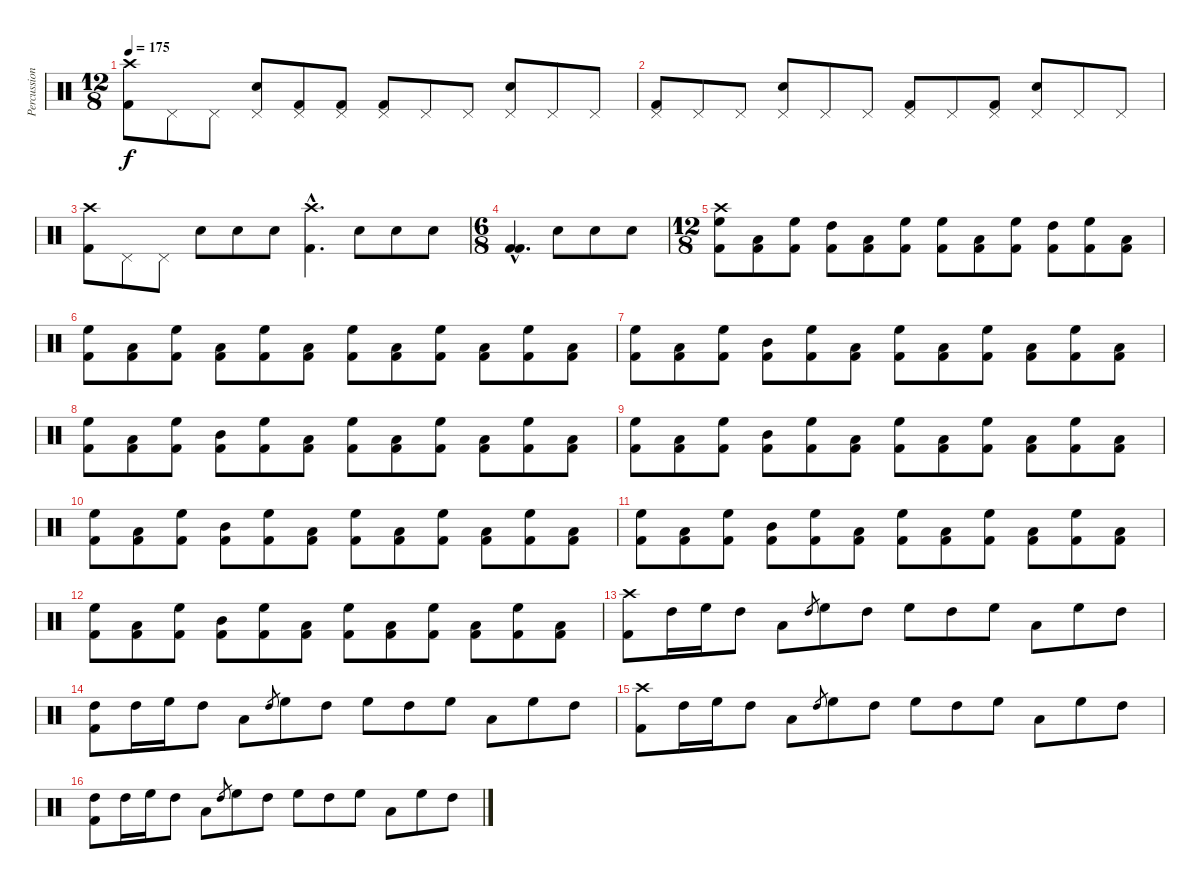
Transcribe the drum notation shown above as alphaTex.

\track ("Percussion" "Percussion") {instrument percussion}
\staff {score}
\articulation defaults
\ts (12 8)
\tempo 175
\clef neutral
\ks c
("Kick (hit) 2" "Crash high (hit)").8{dy f} "Pedal Hi-Hat (hit)".8 "Pedal Hi-Hat (hit)".8 ("Snare (hit) 2" "Pedal Hi-Hat (hit)").8 ("Kick (hit) 2" "Pedal Hi-Hat (hit)").8 ("Kick (hit) 2" "Pedal Hi-Hat (hit)").8 ("Kick (hit) 2" "Pedal Hi-Hat (hit)").8 "Pedal Hi-Hat (hit)".8 "Pedal Hi-Hat (hit)".8 ("Snare (hit) 2" "Pedal Hi-Hat (hit)").8 "Pedal Hi-Hat (hit)".8 "Pedal Hi-Hat (hit)".8 |
("Kick (hit) 2" "Pedal Hi-Hat (hit)").8 "Pedal Hi-Hat (hit)".8 "Pedal Hi-Hat (hit)".8 ("Snare (hit) 2" "Pedal Hi-Hat (hit)").8 "Pedal Hi-Hat (hit)".8 "Pedal Hi-Hat (hit)".8 ("Kick (hit) 2" "Pedal Hi-Hat (hit)").8 "Pedal Hi-Hat (hit)".8 ("Kick (hit) 2" "Pedal Hi-Hat (hit)").8 ("Snare (hit) 2" "Pedal Hi-Hat (hit)").8 "Pedal Hi-Hat (hit)".8 "Pedal Hi-Hat (hit)".8 |
("Kick (hit) 2" "Crash high (hit)").8 "Pedal Hi-Hat (hit)".8 "Pedal Hi-Hat (hit)".8 "Snare (hit) 2".8 "Snare (hit) 2".8 "Snare (hit) 2".8 ("Kick (hit) 2"{hac} "Crash high (hit)"{hac}).4{d} "Snare (hit) 2".8 "Snare (hit) 2".8 "Snare (hit) 2".8 |
\ts (6 8)
("Kick (hit) 2"{hac} "Kick (hit) 2"{hac}).4{d} "Snare (hit) 2".8 "Snare (hit) 2".8 "Snare (hit) 2".8 |
\ts (12 8)
("Kick (hit) 2" "High Floor Tom (hit)" "Crash high (hit)").8 ("Kick (hit) 2" "Low Floor Tom (hit)").8 ("Kick (hit) 2" "High Floor Tom (hit)").8 ("Kick (hit) 2" "High Tom (hit)").8 ("Kick (hit) 2" "Low Floor Tom (hit)").8 ("Kick (hit) 2" "High Floor Tom (hit)").8 ("Kick (hit) 2" "High Floor Tom (hit)").8 ("Kick (hit) 2" "Low Floor Tom (hit)").8 ("Kick (hit) 2" "High Floor Tom (hit)").8 ("Kick (hit) 2" "High Tom (hit)").8 ("Kick (hit) 2" "High Floor Tom (hit)").8 ("Kick (hit) 2" "Low Floor Tom (hit)").8 |
("Kick (hit) 2" "High Floor Tom (hit)").8 ("Kick (hit) 2" "Low Floor Tom (hit)").8 ("Kick (hit) 2" "High Floor Tom (hit)").8 ("Kick (hit) 2" "Low Tom (hit)").8 ("Kick (hit) 2" "High Floor Tom (hit)").8 ("Kick (hit) 2" "Low Floor Tom (hit)").8 ("Kick (hit) 2" "High Floor Tom (hit)").8 ("Kick (hit) 2" "Low Floor Tom (hit)").8 ("Kick (hit) 2" "High Floor Tom (hit)").8 ("Kick (hit) 2" "Low Tom (hit)").8 ("Kick (hit) 2" "High Floor Tom (hit)").8 ("Kick (hit) 2" "Low Tom (hit)").8 |
("Kick (hit) 2" "High Floor Tom (hit)").8 ("Kick (hit) 2" "Low Floor Tom (hit)").8 ("Kick (hit) 2" "High Floor Tom (hit)").8 ("Kick (hit) 2" "Mid Tom (hit)").8 ("Kick (hit) 2" "High Floor Tom (hit)").8 ("Kick (hit) 2" "Low Floor Tom (hit)").8 ("Kick (hit) 2" "High Floor Tom (hit)").8 ("Kick (hit) 2" "Low Floor Tom (hit)").8 ("Kick (hit) 2" "High Floor Tom (hit)").8 ("Kick (hit) 2" "Low Tom (hit)").8 ("Kick (hit) 2" "High Floor Tom (hit)").8 ("Kick (hit) 2" "Low Floor Tom (hit)").8 |
("Kick (hit) 2" "High Floor Tom (hit)").8 ("Kick (hit) 2" "Low Floor Tom (hit)").8 ("Kick (hit) 2" "High Floor Tom (hit)").8 ("Kick (hit) 2" "Mid Tom (hit)").8 ("Kick (hit) 2" "High Floor Tom (hit)").8 ("Kick (hit) 2" "Low Floor Tom (hit)").8 ("Kick (hit) 2" "High Floor Tom (hit)").8 ("Kick (hit) 2" "Low Floor Tom (hit)").8 ("Kick (hit) 2" "High Floor Tom (hit)").8 ("Kick (hit) 2" "Low Tom (hit)").8 ("Kick (hit) 2" "High Floor Tom (hit)").8 ("Kick (hit) 2" "Low Floor Tom (hit)").8 |
("Kick (hit) 2" "High Floor Tom (hit)").8 ("Kick (hit) 2" "Low Floor Tom (hit)").8 ("Kick (hit) 2" "High Floor Tom (hit)").8 ("Kick (hit) 2" "Mid Tom (hit)").8 ("Kick (hit) 2" "High Floor Tom (hit)").8 ("Kick (hit) 2" "Low Floor Tom (hit)").8 ("Kick (hit) 2" "High Floor Tom (hit)").8 ("Kick (hit) 2" "Low Floor Tom (hit)").8 ("Kick (hit) 2" "High Floor Tom (hit)").8 ("Kick (hit) 2" "Low Tom (hit)").8 ("Kick (hit) 2" "High Floor Tom (hit)").8 ("Kick (hit) 2" "Low Floor Tom (hit)").8 |
("Kick (hit) 2" "High Floor Tom (hit)").8 ("Kick (hit) 2" "Low Floor Tom (hit)").8 ("Kick (hit) 2" "High Floor Tom (hit)").8 ("Kick (hit) 2" "Mid Tom (hit)").8 ("Kick (hit) 2" "High Floor Tom (hit)").8 ("Kick (hit) 2" "Low Floor Tom (hit)").8 ("Kick (hit) 2" "High Floor Tom (hit)").8 ("Kick (hit) 2" "Low Floor Tom (hit)").8 ("Kick (hit) 2" "High Floor Tom (hit)").8 ("Kick (hit) 2" "Low Tom (hit)").8 ("Kick (hit) 2" "High Floor Tom (hit)").8 ("Kick (hit) 2" "Low Floor Tom (hit)").8 |
("Kick (hit) 2" "High Floor Tom (hit)").8 ("Kick (hit) 2" "Low Floor Tom (hit)").8 ("Kick (hit) 2" "High Floor Tom (hit)").8 ("Kick (hit) 2" "Mid Tom (hit)").8 ("Kick (hit) 2" "High Floor Tom (hit)").8 ("Kick (hit) 2" "Low Floor Tom (hit)").8 ("Kick (hit) 2" "High Floor Tom (hit)").8 ("Kick (hit) 2" "Low Floor Tom (hit)").8 ("Kick (hit) 2" "High Floor Tom (hit)").8 ("Kick (hit) 2" "Low Tom (hit)").8 ("Kick (hit) 2" "High Floor Tom (hit)").8 ("Kick (hit) 2" "Low Floor Tom (hit)").8 |
("Kick (hit) 2" "High Floor Tom (hit)").8 ("Kick (hit) 2" "Low Floor Tom (hit)").8 ("Kick (hit) 2" "High Floor Tom (hit)").8 ("Kick (hit) 2" "Mid Tom (hit)").8 ("Kick (hit) 2" "High Floor Tom (hit)").8 ("Kick (hit) 2" "Low Floor Tom (hit)").8 ("Kick (hit) 2" "High Floor Tom (hit)").8 ("Kick (hit) 2" "Low Floor Tom (hit)").8 ("Kick (hit) 2" "High Floor Tom (hit)").8 ("Kick (hit) 2" "Low Tom (hit)").8 ("Kick (hit) 2" "High Floor Tom (hit)").8 ("Kick (hit) 2" "Low Floor Tom (hit)").8 |
("Kick (hit) 2" "Crash high (hit)").8 "High Tom (hit)".16 "High Floor Tom (hit)".16 "High Tom (hit)".8 "Low Tom (hit)".8 "High Tom (hit)".8{gr} "High Floor Tom (hit)".8 "High Tom (hit)".8 "High Floor Tom (hit)".8 "High Tom (hit)".8 "High Floor Tom (hit)".8 "Low Tom (hit)".8 "High Floor Tom (hit)".8 "High Tom (hit)".8 |
("Kick (hit) 2" "High Tom (hit)").8 "High Tom (hit)".16 "High Floor Tom (hit)".16 "High Tom (hit)".8 "Low Tom (hit)".8 "High Tom (hit)".8{gr} "High Floor Tom (hit)".8 "High Tom (hit)".8 "High Floor Tom (hit)".8 "High Tom (hit)".8 "High Floor Tom (hit)".8 "Low Tom (hit)".8 "High Floor Tom (hit)".8 "High Tom (hit)".8 |
("Kick (hit) 2" "Crash high (hit)").8 "High Tom (hit)".16 "High Floor Tom (hit)".16 "High Tom (hit)".8 "Low Tom (hit)".8 "High Tom (hit)".8{gr} "High Floor Tom (hit)".8 "High Tom (hit)".8 "High Floor Tom (hit)".8 "High Tom (hit)".8 "High Floor Tom (hit)".8 "Low Tom (hit)".8 "High Floor Tom (hit)".8 "High Tom (hit)".8 |
("Kick (hit) 2" "High Tom (hit)").8 "High Tom (hit)".16 "High Floor Tom (hit)".16 "High Tom (hit)".8 "Low Tom (hit)".8 "High Tom (hit)".8{gr} "High Floor Tom (hit)".8 "High Tom (hit)".8 "High Floor Tom (hit)".8 "High Tom (hit)".8 "High Floor Tom (hit)".8 "Low Tom (hit)".8 "High Floor Tom (hit)".8 "High Tom (hit)".8
